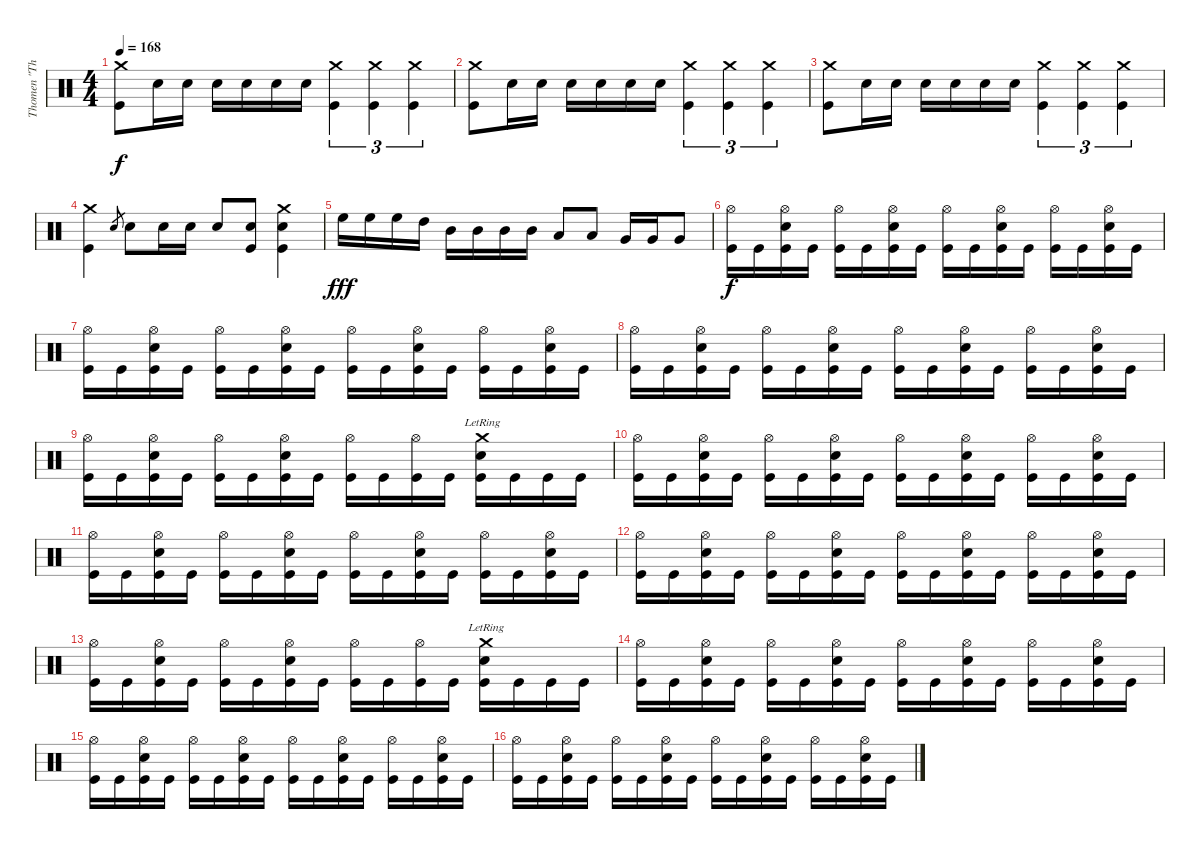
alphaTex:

\track ("Thomen \"The Omen\" Stauch" "Thomen \"Th") {instrument percussion}
\staff {score}
\articulation defaults
\ts (4 4)
\tempo 168
\clef neutral
\ks c
("Crash medium (hit)" "Kick (hit)").8{dy f} "Snare (hit) 2".16 "Snare (hit) 2".16 "Snare (hit) 2".16 "Snare (hit) 2".16 "Snare (hit) 2".16 "Snare (hit) 2".16 ("Crash medium (hit)" "Kick (hit)").4{tu (3 2)} ("Crash medium (hit)" "Kick (hit)").4{tu (3 2)} ("Crash medium (hit)" "Kick (hit)").4{tu (3 2)} |
("Crash medium (hit)" "Kick (hit)").8 "Snare (hit) 2".16 "Snare (hit) 2".16 "Snare (hit) 2".16 "Snare (hit) 2".16 "Snare (hit) 2".16 "Snare (hit) 2".16 ("Crash medium (hit)" "Kick (hit)").4{tu (3 2)} ("Crash medium (hit)" "Kick (hit)").4{tu (3 2)} ("Crash medium (hit)" "Kick (hit)").4{tu (3 2)} |
("Crash medium (hit)" "Kick (hit)").8 "Snare (hit) 2".16 "Snare (hit) 2".16 "Snare (hit) 2".16 "Snare (hit) 2".16 "Snare (hit) 2".16 "Snare (hit) 2".16 ("Crash medium (hit)" "Kick (hit)").4{tu (3 2)} ("Crash medium (hit)" "Kick (hit)").4{tu (3 2)} ("Crash medium (hit)" "Kick (hit)").4{tu (3 2)} |
("Crash medium (hit)" "Kick (hit)").4 "Snare (hit) 2".8{gr} "Snare (hit) 2".8 "Snare (hit) 2".16 "Snare (hit) 2".16 "Snare (hit) 2".8 ("Snare (hit) 2" "Kick (hit)").8 ("Crash medium (hit)" "Snare (hit) 2" "Kick (hit)").4 |
"High Floor Tom (hit)".16{dy fff} "High Floor Tom (hit)".16 "High Floor Tom (hit)".16 "High Tom (hit)".16 "Mid Tom (hit)".16 "Mid Tom (hit)".16 "Mid Tom (hit)".16 "Mid Tom (hit)".16 "Low Tom (hit)".8 "Low Tom (hit)".8 "Very Low Tom (hit)".16 "Very Low Tom (hit)".16 "Very Low Tom (hit)".8 |
("Hi-Hat (open)" "Kick (hit)").16{dy f} "Kick (hit)".16 ("Hi-Hat (open)" "Snare (hit) 2" "Kick (hit)").16 "Kick (hit)".16 ("Hi-Hat (open)" "Kick (hit)").16 "Kick (hit)".16 ("Hi-Hat (open)" "Snare (hit) 2" "Kick (hit)").16 "Kick (hit)".16 ("Hi-Hat (open)" "Kick (hit)").16 "Kick (hit)".16 ("Hi-Hat (open)" "Snare (hit) 2" "Kick (hit)").16 "Kick (hit)".16 ("Hi-Hat (open)" "Kick (hit)").16 "Kick (hit)".16 ("Hi-Hat (open)" "Snare (hit) 2" "Kick (hit)").16 "Kick (hit)".16 |
("Hi-Hat (open)" "Kick (hit)").16 "Kick (hit)".16 ("Hi-Hat (open)" "Snare (hit) 2" "Kick (hit)").16 "Kick (hit)".16 ("Hi-Hat (open)" "Kick (hit)").16 "Kick (hit)".16 ("Hi-Hat (open)" "Snare (hit) 2" "Kick (hit)").16 "Kick (hit)".16 ("Hi-Hat (open)" "Kick (hit)").16 "Kick (hit)".16 ("Hi-Hat (open)" "Snare (hit) 2" "Kick (hit)").16 "Kick (hit)".16 ("Hi-Hat (open)" "Kick (hit)").16 "Kick (hit)".16 ("Hi-Hat (open)" "Snare (hit) 2" "Kick (hit)").16 "Kick (hit)".16 |
("Hi-Hat (open)" "Kick (hit)").16 "Kick (hit)".16 ("Hi-Hat (open)" "Snare (hit) 2" "Kick (hit)").16 "Kick (hit)".16 ("Hi-Hat (open)" "Kick (hit)").16 "Kick (hit)".16 ("Hi-Hat (open)" "Snare (hit) 2" "Kick (hit)").16 "Kick (hit)".16 ("Hi-Hat (open)" "Kick (hit)").16 "Kick (hit)".16 ("Hi-Hat (open)" "Snare (hit) 2" "Kick (hit)").16 "Kick (hit)".16 ("Hi-Hat (open)" "Kick (hit)").16 "Kick (hit)".16 ("Hi-Hat (open)" "Snare (hit) 2" "Kick (hit)").16 "Kick (hit)".16 |
("Hi-Hat (open)" "Kick (hit)").16 "Kick (hit)".16 ("Hi-Hat (open)" "Snare (hit) 2" "Kick (hit)").16 "Kick (hit)".16 ("Hi-Hat (open)" "Kick (hit)").16 "Kick (hit)".16 ("Hi-Hat (open)" "Snare (hit) 2" "Kick (hit)").16 "Kick (hit)".16 ("Hi-Hat (open)" "Kick (hit)").16 "Kick (hit)".16 ("Hi-Hat (open)" "Kick (hit)").16 "Kick (hit)".16 ("Crash medium (hit)"{lr} "Snare (hit) 2" "Kick (hit)").16 "Kick (hit)".16 "Kick (hit)".16 "Kick (hit)".16 |
("Hi-Hat (open)" "Kick (hit)").16 "Kick (hit)".16 ("Hi-Hat (open)" "Snare (hit) 2" "Kick (hit)").16 "Kick (hit)".16 ("Hi-Hat (open)" "Kick (hit)").16 "Kick (hit)".16 ("Hi-Hat (open)" "Snare (hit) 2" "Kick (hit)").16 "Kick (hit)".16 ("Hi-Hat (open)" "Kick (hit)").16 "Kick (hit)".16 ("Hi-Hat (open)" "Snare (hit) 2" "Kick (hit)").16 "Kick (hit)".16 ("Hi-Hat (open)" "Kick (hit)").16 "Kick (hit)".16 ("Hi-Hat (open)" "Snare (hit) 2" "Kick (hit)").16 "Kick (hit)".16 |
("Hi-Hat (open)" "Kick (hit)").16 "Kick (hit)".16 ("Hi-Hat (open)" "Snare (hit) 2" "Kick (hit)").16 "Kick (hit)".16 ("Hi-Hat (open)" "Kick (hit)").16 "Kick (hit)".16 ("Hi-Hat (open)" "Snare (hit) 2" "Kick (hit)").16 "Kick (hit)".16 ("Hi-Hat (open)" "Kick (hit)").16 "Kick (hit)".16 ("Hi-Hat (open)" "Snare (hit) 2" "Kick (hit)").16 "Kick (hit)".16 ("Hi-Hat (open)" "Kick (hit)").16 "Kick (hit)".16 ("Hi-Hat (open)" "Snare (hit) 2" "Kick (hit)").16 "Kick (hit)".16 |
("Hi-Hat (open)" "Kick (hit)").16 "Kick (hit)".16 ("Hi-Hat (open)" "Snare (hit) 2" "Kick (hit)").16 "Kick (hit)".16 ("Hi-Hat (open)" "Kick (hit)").16 "Kick (hit)".16 ("Hi-Hat (open)" "Snare (hit) 2" "Kick (hit)").16 "Kick (hit)".16 ("Hi-Hat (open)" "Kick (hit)").16 "Kick (hit)".16 ("Hi-Hat (open)" "Snare (hit) 2" "Kick (hit)").16 "Kick (hit)".16 ("Hi-Hat (open)" "Kick (hit)").16 "Kick (hit)".16 ("Hi-Hat (open)" "Snare (hit) 2" "Kick (hit)").16 "Kick (hit)".16 |
("Hi-Hat (open)" "Kick (hit)").16 "Kick (hit)".16 ("Hi-Hat (open)" "Snare (hit) 2" "Kick (hit)").16 "Kick (hit)".16 ("Hi-Hat (open)" "Kick (hit)").16 "Kick (hit)".16 ("Hi-Hat (open)" "Snare (hit) 2" "Kick (hit)").16 "Kick (hit)".16 ("Hi-Hat (open)" "Kick (hit)").16 "Kick (hit)".16 ("Hi-Hat (open)" "Kick (hit)").16 "Kick (hit)".16 ("Crash medium (hit)"{lr} "Snare (hit) 2" "Kick (hit)").16 "Kick (hit)".16 "Kick (hit)".16 "Kick (hit)".16 |
("Hi-Hat (open)" "Kick (hit)").16 "Kick (hit)".16 ("Hi-Hat (open)" "Snare (hit) 2" "Kick (hit)").16 "Kick (hit)".16 ("Hi-Hat (open)" "Kick (hit)").16 "Kick (hit)".16 ("Hi-Hat (open)" "Snare (hit) 2" "Kick (hit)").16 "Kick (hit)".16 ("Hi-Hat (open)" "Kick (hit)").16 "Kick (hit)".16 ("Hi-Hat (open)" "Snare (hit) 2" "Kick (hit)").16 "Kick (hit)".16 ("Hi-Hat (open)" "Kick (hit)").16 "Kick (hit)".16 ("Hi-Hat (open)" "Snare (hit) 2" "Kick (hit)").16 "Kick (hit)".16 |
("Hi-Hat (open)" "Kick (hit)").16 "Kick (hit)".16 ("Hi-Hat (open)" "Snare (hit) 2" "Kick (hit)").16 "Kick (hit)".16 ("Hi-Hat (open)" "Kick (hit)").16 "Kick (hit)".16 ("Hi-Hat (open)" "Snare (hit) 2" "Kick (hit)").16 "Kick (hit)".16 ("Hi-Hat (open)" "Kick (hit)").16 "Kick (hit)".16 ("Hi-Hat (open)" "Snare (hit) 2" "Kick (hit)").16 "Kick (hit)".16 ("Hi-Hat (open)" "Kick (hit)").16 "Kick (hit)".16 ("Hi-Hat (open)" "Snare (hit) 2" "Kick (hit)").16 "Kick (hit)".16 |
("Hi-Hat (open)" "Kick (hit)").16 "Kick (hit)".16 ("Hi-Hat (open)" "Snare (hit) 2" "Kick (hit)").16 "Kick (hit)".16 ("Hi-Hat (open)" "Kick (hit)").16 "Kick (hit)".16 ("Hi-Hat (open)" "Snare (hit) 2" "Kick (hit)").16 "Kick (hit)".16 ("Hi-Hat (open)" "Kick (hit)").16 "Kick (hit)".16 ("Hi-Hat (open)" "Snare (hit) 2" "Kick (hit)").16 "Kick (hit)".16 ("Hi-Hat (open)" "Kick (hit)").16 "Kick (hit)".16 ("Hi-Hat (open)" "Snare (hit) 2" "Kick (hit)").16 "Kick (hit)".16
